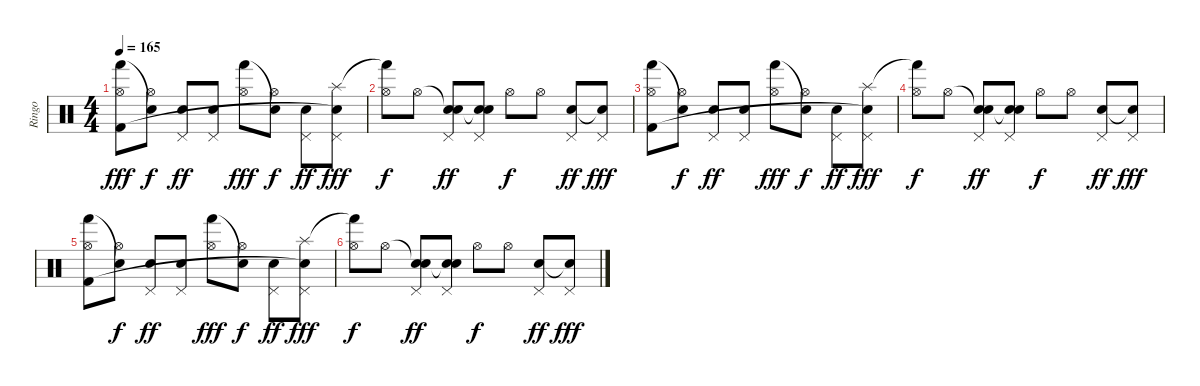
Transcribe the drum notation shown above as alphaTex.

\track ("Ringo" "Ringo") {instrument percussion}
\staff {score}
\articulation defaults
\ts (4 4)
\tempo 165
\clef neutral
\ks c
("Hand (hit)" "Hi-Hat (open)" "Kick (hit) 2").8{dy fff volume 10} ("Snare (hit)"{t} "Hi-Hat (open)").8{dy f} ("Pedal Hi-Hat (hit)" "Snare (hit) 2").8{dy ff} ("Pedal Hi-Hat (hit)" "Snare (hit) 2").8 ("Hand (hit)" "Hi-Hat (open)").8{dy fff} ("Snare (hit)"{t} "Hi-Hat (open)").8{dy f} ("Pedal Hi-Hat (hit)" "Snare (hit) 2").8{dy ff} ("Splash (hit)" "Pedal Hi-Hat (hit)" "Snare (hit)"{t}).8{dy fff} |
("Hand (hit)"{t} "Hi-Hat (open)").8{dy f volume 9} "Hi-Hat (open)".8 ("Snare (hit)"{t} "Pedal Hi-Hat (hit)" "Snare (hit) 2").8{dy ff} ("Snare (hit)"{t} "Pedal Hi-Hat (hit)" "Snare (hit) 2").8 "Hi-Hat (open)".8{dy f} "Hi-Hat (open)".8 ("Pedal Hi-Hat (hit)" "Snare (hit) 2").8{dy ff} ("Pedal Hi-Hat (hit)" "Snare (hit)"{t}).8{dy fff} |
("Hand (hit)" "Hi-Hat (open)" "Kick (hit) 2").8{volume 7} ("Snare (hit)"{t} "Hi-Hat (open)").8{dy f} ("Pedal Hi-Hat (hit)" "Snare (hit) 2").8{dy ff} ("Pedal Hi-Hat (hit)" "Snare (hit) 2").8 ("Hand (hit)" "Hi-Hat (open)").8{dy fff} ("Snare (hit)"{t} "Hi-Hat (open)").8{dy f} ("Pedal Hi-Hat (hit)" "Snare (hit) 2").8{dy ff} ("Splash (hit)" "Pedal Hi-Hat (hit)" "Snare (hit)"{t}).8{dy fff} |
("Hand (hit)"{t} "Hi-Hat (open)").8{dy f volume 5} "Hi-Hat (open)".8 ("Snare (hit)"{t} "Pedal Hi-Hat (hit)" "Snare (hit) 2").8{dy ff} ("Snare (hit)"{t} "Pedal Hi-Hat (hit)" "Snare (hit) 2").8 "Hi-Hat (open)".8{dy f} "Hi-Hat (open)".8 ("Pedal Hi-Hat (hit)" "Snare (hit) 2").8{dy ff} ("Pedal Hi-Hat (hit)" "Snare (hit)"{t}).8{dy fff} |
("Hand (hit)" "Hi-Hat (open)" "Kick (hit) 2").8{volume 3} ("Snare (hit)"{t} "Hi-Hat (open)").8{dy f} ("Pedal Hi-Hat (hit)" "Snare (hit) 2").8{dy ff} ("Pedal Hi-Hat (hit)" "Snare (hit) 2").8 ("Hand (hit)" "Hi-Hat (open)").8{dy fff} ("Snare (hit)"{t} "Hi-Hat (open)").8{dy f} ("Pedal Hi-Hat (hit)" "Snare (hit) 2").8{dy ff} ("Splash (hit)" "Pedal Hi-Hat (hit)" "Snare (hit)"{t}).8{dy fff} |
("Hand (hit)"{t} "Hi-Hat (open)").8{dy f volume 2} "Hi-Hat (open)".8 ("Snare (hit)"{t} "Pedal Hi-Hat (hit)" "Snare (hit) 2").8{dy ff} ("Snare (hit)"{t} "Pedal Hi-Hat (hit)" "Snare (hit) 2").8 "Hi-Hat (open)".8{dy f} "Hi-Hat (open)".8 ("Pedal Hi-Hat (hit)" "Snare (hit) 2").8{dy ff} ("Pedal Hi-Hat (hit)" "Snare (hit)"{t}).8{dy fff}
